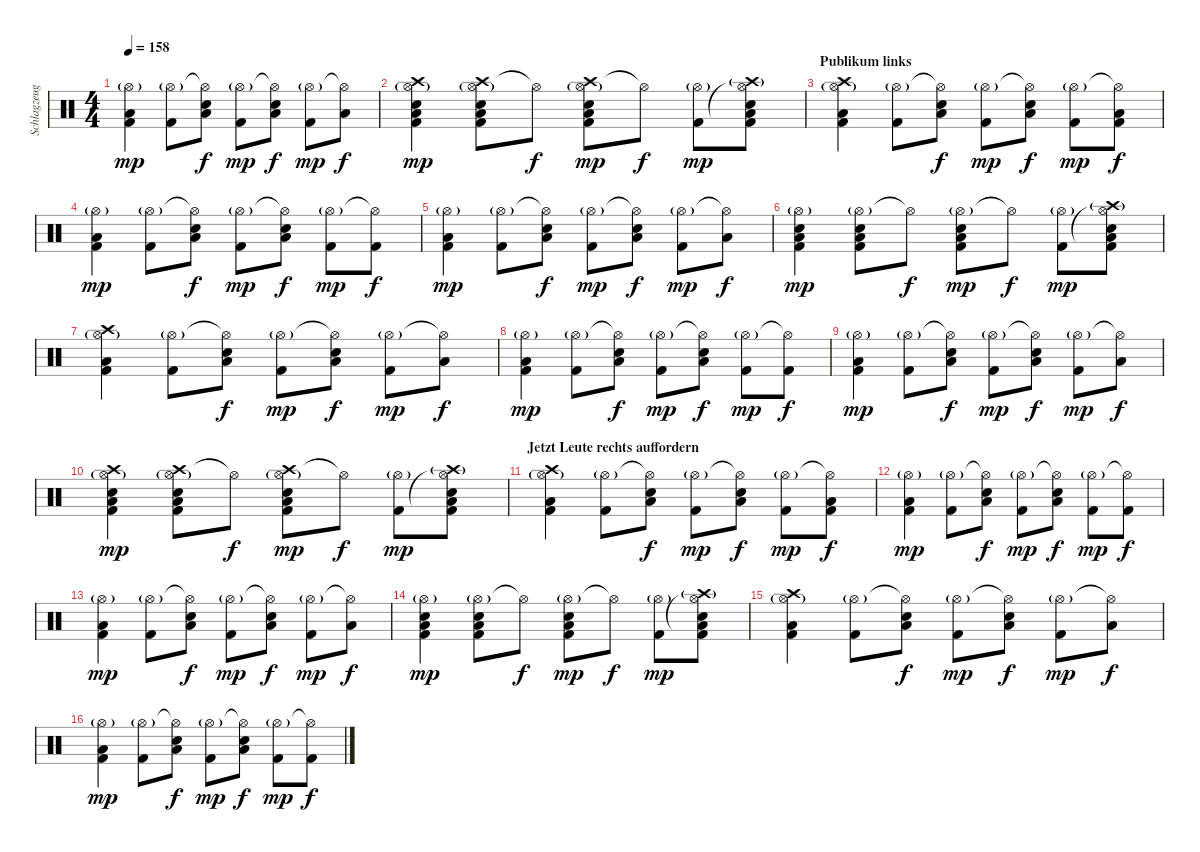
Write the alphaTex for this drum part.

\track ("Schlagzeug" "Schlagzeug") {instrument percussion}
\staff {score}
\articulation defaults
\ts (4 4)
\tempo 158
\clef neutral
\ks c
("Hi-Hat (open)"{g} "Low Floor Tom (hit)" "Kick (hit) 2").4{dy mp} ("Hi-Hat (open)"{g} "Kick (hit) 2").8 ("Hi-Hat (open)"{t} "Low Floor Tom (hit)" "Electric Snare (hit)").8{dy f} ("Hi-Hat (open)"{g} "Kick (hit) 2").8{dy mp} ("Hi-Hat (open)"{t} "Low Floor Tom (hit)" "Electric Snare (hit)").8{dy f} ("Hi-Hat (open)"{g} "Kick (hit) 2").8{dy mp} ("Hi-Hat (open)"{t} "Low Floor Tom (hit)").8{dy f} |
("Crash high (hit)" "Hi-Hat (open)"{g} "Low Floor Tom (hit)" "Electric Snare (hit)" "Kick (hit) 2").4{dy mp} ("Crash high (hit)" "Hi-Hat (open)"{g} "Low Floor Tom (hit)" "Electric Snare (hit)" "Kick (hit) 2").8 "Hi-Hat (open)"{t}.8{dy f} ("Crash high (hit)" "Hi-Hat (open)"{g} "Low Floor Tom (hit)" "Electric Snare (hit)" "Kick (hit) 2").8{dy mp} "Hi-Hat (open)"{t}.8{dy f} ("Hi-Hat (open)"{g} "Kick (hit) 2").8{dy mp} ("Crash high (hit)"{g} "Hi-Hat (open)"{t} "Low Floor Tom (hit)" "Electric Snare (hit)" "Kick (hit) 2").8 |
\section ("" "Publikum links")
("Crash high (hit)" "Hi-Hat (open)"{g} "Low Floor Tom (hit)" "Kick (hit) 2").4 ("Hi-Hat (open)"{g} "Kick (hit) 2").8 ("Hi-Hat (open)"{t} "Low Floor Tom (hit)" "Electric Snare (hit)").8{dy f} ("Hi-Hat (open)"{g} "Kick (hit) 2").8{dy mp} ("Hi-Hat (open)"{t} "Low Floor Tom (hit)" "Electric Snare (hit)").8{dy f} ("Hi-Hat (open)"{g} "Kick (hit) 2").8{dy mp} ("Hi-Hat (open)"{t} "Low Floor Tom (hit)" "Kick (hit) 2").8{dy f} |
("Hi-Hat (open)"{g} "Low Floor Tom (hit)" "Kick (hit) 2").4{dy mp} ("Hi-Hat (open)"{g} "Kick (hit) 2").8 ("Hi-Hat (open)"{t} "Low Floor Tom (hit)" "Electric Snare (hit)").8{dy f} ("Hi-Hat (open)"{g} "Kick (hit) 2").8{dy mp} ("Hi-Hat (open)"{t} "Low Floor Tom (hit)" "Electric Snare (hit)").8{dy f} ("Hi-Hat (open)"{g} "Kick (hit) 2").8{dy mp} ("Hi-Hat (open)"{t} "Kick (hit) 2").8{dy f} |
("Hi-Hat (open)"{g} "Low Floor Tom (hit)" "Kick (hit) 2").4{dy mp} ("Hi-Hat (open)"{g} "Kick (hit) 2").8 ("Hi-Hat (open)"{t} "Low Floor Tom (hit)" "Electric Snare (hit)").8{dy f} ("Hi-Hat (open)"{g} "Kick (hit) 2").8{dy mp} ("Hi-Hat (open)"{t} "Low Floor Tom (hit)" "Electric Snare (hit)").8{dy f} ("Hi-Hat (open)"{g} "Kick (hit) 2").8{dy mp} ("Hi-Hat (open)"{t} "Low Floor Tom (hit)").8{dy f} |
("Hi-Hat (open)"{g} "Low Floor Tom (hit)" "Electric Snare (hit)" "Kick (hit) 2").4{dy mp} ("Hi-Hat (open)"{g} "Low Floor Tom (hit)" "Electric Snare (hit)" "Kick (hit) 2").8 "Hi-Hat (open)"{t}.8{dy f} ("Hi-Hat (open)"{g} "Low Floor Tom (hit)" "Electric Snare (hit)" "Kick (hit) 2").8{dy mp} "Hi-Hat (open)"{t}.8{dy f} ("Hi-Hat (open)"{g} "Kick (hit) 2").8{dy mp} ("Crash high (hit)"{g} "Hi-Hat (open)"{t} "Low Floor Tom (hit)" "Electric Snare (hit)" "Kick (hit) 2").8 |
("Crash high (hit)" "Hi-Hat (open)"{g} "Low Floor Tom (hit)" "Kick (hit) 2").4 ("Hi-Hat (open)"{g} "Kick (hit) 2").8 ("Hi-Hat (open)"{t} "Low Floor Tom (hit)" "Electric Snare (hit)").8{dy f} ("Hi-Hat (open)"{g} "Kick (hit) 2").8{dy mp} ("Hi-Hat (open)"{t} "Low Floor Tom (hit)" "Electric Snare (hit)").8{dy f} ("Hi-Hat (open)"{g} "Kick (hit) 2").8{dy mp} ("Hi-Hat (open)"{t} "Low Floor Tom (hit)").8{dy f} |
("Hi-Hat (open)"{g} "Low Floor Tom (hit)" "Kick (hit) 2").4{dy mp} ("Hi-Hat (open)"{g} "Kick (hit) 2").8 ("Hi-Hat (open)"{t} "Low Floor Tom (hit)" "Electric Snare (hit)").8{dy f} ("Hi-Hat (open)"{g} "Kick (hit) 2").8{dy mp} ("Hi-Hat (open)"{t} "Low Floor Tom (hit)" "Electric Snare (hit)").8{dy f} ("Hi-Hat (open)"{g} "Kick (hit) 2").8{dy mp} ("Hi-Hat (open)"{t} "Kick (hit) 2").8{dy f} |
("Hi-Hat (open)"{g} "Low Floor Tom (hit)" "Kick (hit) 2").4{dy mp} ("Hi-Hat (open)"{g} "Kick (hit) 2").8 ("Hi-Hat (open)"{t} "Low Floor Tom (hit)" "Electric Snare (hit)").8{dy f} ("Hi-Hat (open)"{g} "Kick (hit) 2").8{dy mp} ("Hi-Hat (open)"{t} "Low Floor Tom (hit)" "Electric Snare (hit)").8{dy f} ("Hi-Hat (open)"{g} "Kick (hit) 2").8{dy mp} ("Hi-Hat (open)"{t} "Low Floor Tom (hit)").8{dy f} |
("Crash high (hit)" "Hi-Hat (open)"{g} "Low Floor Tom (hit)" "Electric Snare (hit)" "Kick (hit) 2").4{dy mp} ("Crash high (hit)" "Hi-Hat (open)"{g} "Low Floor Tom (hit)" "Electric Snare (hit)" "Kick (hit) 2").8 "Hi-Hat (open)"{t}.8{dy f} ("Crash high (hit)" "Hi-Hat (open)"{g} "Low Floor Tom (hit)" "Electric Snare (hit)" "Kick (hit) 2").8{dy mp} "Hi-Hat (open)"{t}.8{dy f} ("Hi-Hat (open)"{g} "Kick (hit) 2").8{dy mp} ("Crash high (hit)"{g} "Hi-Hat (open)"{t} "Low Floor Tom (hit)" "Electric Snare (hit)" "Kick (hit) 2").8 |
\section ("" "Jetzt Leute rechts auffordern")
("Crash high (hit)" "Hi-Hat (open)"{g} "Low Floor Tom (hit)" "Kick (hit) 2").4 ("Hi-Hat (open)"{g} "Kick (hit) 2").8 ("Hi-Hat (open)"{t} "Low Floor Tom (hit)" "Electric Snare (hit)").8{dy f} ("Hi-Hat (open)"{g} "Kick (hit) 2").8{dy mp} ("Hi-Hat (open)"{t} "Low Floor Tom (hit)" "Electric Snare (hit)").8{dy f} ("Hi-Hat (open)"{g} "Kick (hit) 2").8{dy mp} ("Hi-Hat (open)"{t} "Low Floor Tom (hit)" "Kick (hit) 2").8{dy f} |
("Hi-Hat (open)"{g} "Low Floor Tom (hit)" "Kick (hit) 2").4{dy mp} ("Hi-Hat (open)"{g} "Kick (hit) 2").8 ("Hi-Hat (open)"{t} "Low Floor Tom (hit)" "Electric Snare (hit)").8{dy f} ("Hi-Hat (open)"{g} "Kick (hit) 2").8{dy mp} ("Hi-Hat (open)"{t} "Low Floor Tom (hit)" "Electric Snare (hit)").8{dy f} ("Hi-Hat (open)"{g} "Kick (hit) 2").8{dy mp} ("Hi-Hat (open)"{t} "Kick (hit) 2").8{dy f} |
("Hi-Hat (open)"{g} "Low Floor Tom (hit)" "Kick (hit) 2").4{dy mp} ("Hi-Hat (open)"{g} "Kick (hit) 2").8 ("Hi-Hat (open)"{t} "Low Floor Tom (hit)" "Electric Snare (hit)").8{dy f} ("Hi-Hat (open)"{g} "Kick (hit) 2").8{dy mp} ("Hi-Hat (open)"{t} "Low Floor Tom (hit)" "Electric Snare (hit)").8{dy f} ("Hi-Hat (open)"{g} "Kick (hit) 2").8{dy mp} ("Hi-Hat (open)"{t} "Low Floor Tom (hit)").8{dy f} |
("Hi-Hat (open)"{g} "Low Floor Tom (hit)" "Electric Snare (hit)" "Kick (hit) 2").4{dy mp} ("Hi-Hat (open)"{g} "Low Floor Tom (hit)" "Electric Snare (hit)" "Kick (hit) 2").8 "Hi-Hat (open)"{t}.8{dy f} ("Hi-Hat (open)"{g} "Low Floor Tom (hit)" "Electric Snare (hit)" "Kick (hit) 2").8{dy mp} "Hi-Hat (open)"{t}.8{dy f} ("Hi-Hat (open)"{g} "Kick (hit) 2").8{dy mp} ("Crash high (hit)"{g} "Hi-Hat (open)"{t} "Low Floor Tom (hit)" "Electric Snare (hit)" "Kick (hit) 2").8 |
("Crash high (hit)" "Hi-Hat (open)"{g} "Low Floor Tom (hit)" "Kick (hit) 2").4 ("Hi-Hat (open)"{g} "Kick (hit) 2").8 ("Hi-Hat (open)"{t} "Low Floor Tom (hit)" "Electric Snare (hit)").8{dy f} ("Hi-Hat (open)"{g} "Kick (hit) 2").8{dy mp} ("Hi-Hat (open)"{t} "Low Floor Tom (hit)" "Electric Snare (hit)").8{dy f} ("Hi-Hat (open)"{g} "Kick (hit) 2").8{dy mp} ("Hi-Hat (open)"{t} "Low Floor Tom (hit)").8{dy f} |
("Hi-Hat (open)"{g} "Low Floor Tom (hit)" "Kick (hit) 2").4{dy mp} ("Hi-Hat (open)"{g} "Kick (hit) 2").8 ("Hi-Hat (open)"{t} "Low Floor Tom (hit)" "Electric Snare (hit)").8{dy f} ("Hi-Hat (open)"{g} "Kick (hit) 2").8{dy mp} ("Hi-Hat (open)"{t} "Low Floor Tom (hit)" "Electric Snare (hit)").8{dy f} ("Hi-Hat (open)"{g} "Kick (hit) 2").8{dy mp} ("Hi-Hat (open)"{t} "Kick (hit) 2").8{dy f}
